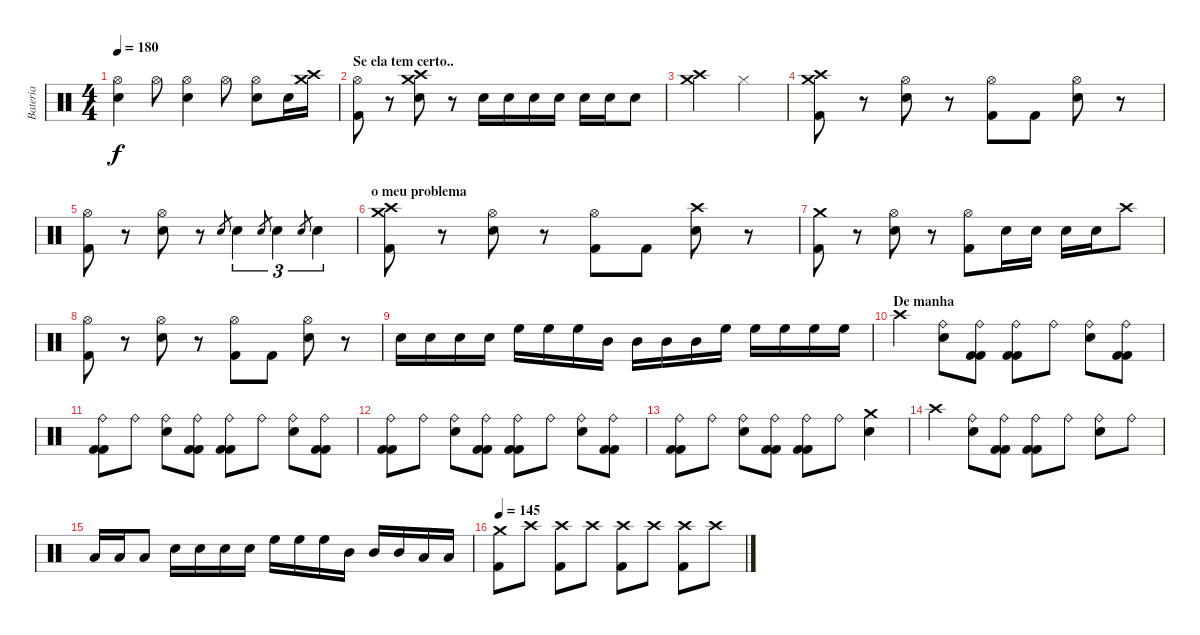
\track ("Bateria" "Bateria") {instrument percussion}
\staff {score}
\articulation defaults
\ts (4 4)
\tempo 180
\clef neutral
\ks c
("Hi-Hat (open)" "Electric Snare (hit)").4{dy f} "Hi-Hat (open)".8 ("Hi-Hat (open)" "Electric Snare (hit)").4 "Hi-Hat (open)".8 ("Hi-Hat (open)" "Electric Snare (hit)").8 "Electric Snare (hit)".16 ("Crash medium (hit)" "Crash high (hit)").16 |
\section ("" "Se ela tem certo..")
("Hi-Hat (open)" "Kick (hit) 2").8 r.8 ("Crash medium (hit)" "Crash high (hit)" "Electric Snare (hit)").8 r.8 "Electric Snare (hit)".16 "Electric Snare (hit)".16 "Electric Snare (hit)".16 "Electric Snare (hit)".16 "Electric Snare (hit)".16 "Electric Snare (hit)".16 "Electric Snare (hit)".8 |
("Crash medium (hit)" "Crash high (hit)").2 "Hi-Hat (closed)".2 |
("Crash medium (hit)" "Crash high (hit)" "Kick (hit) 2").8 r.8 ("Hi-Hat (open)" "Electric Snare (hit)").8 r.8 ("Hi-Hat (open)" "Kick (hit) 2").8 "Kick (hit) 2".8 ("Hi-Hat (open)" "Electric Snare (hit)").8 r.8 |
("Hi-Hat (open)" "Kick (hit) 2").8 r.8 ("Hi-Hat (open)" "Electric Snare (hit)").8 r.8 "Electric Snare (hit)".8{gr} "Electric Snare (hit)".4{tu (3 2)} "Electric Snare (hit)".8{gr} "Electric Snare (hit)".4{tu (3 2)} "Electric Snare (hit)".8{gr} "Electric Snare (hit)".4{tu (3 2)} |
\section ("" "o meu problema")
("Crash medium (hit)" "Crash high (hit)" "Kick (hit) 2").8 r.8 ("Hi-Hat (open)" "Electric Snare (hit)").8 r.8 ("Hi-Hat (open)" "Kick (hit) 2").8 "Kick (hit) 2".8 ("Crash high (hit)" "Electric Snare (hit)").8 r.8 |
("Crash medium (hit)" "Kick (hit) 2").8 r.8 ("Hi-Hat (open)" "Electric Snare (hit)").8 r.8 ("Hi-Hat (open)" "Kick (hit) 2").8 "Electric Snare (hit)".16 "Electric Snare (hit)".16 "Electric Snare (hit)".16 "Electric Snare (hit)".16 "Crash high (hit)".8 |
("Hi-Hat (open)" "Kick (hit) 2").8 r.8 ("Hi-Hat (open)" "Electric Snare (hit)").8 r.8 ("Hi-Hat (open)" "Kick (hit) 2").8 "Kick (hit) 2".8 ("Hi-Hat (open)" "Electric Snare (hit)").8 r.8 |
"Electric Snare (hit)".16 "Electric Snare (hit)".16 "Electric Snare (hit)".16 "Electric Snare (hit)".16 "High Floor Tom (hit)".16 "High Floor Tom (hit)".16 "High Floor Tom (hit)".16 "Mid Tom (hit)".16 "Mid Tom (hit)".16 "Mid Tom (hit)".16 "Mid Tom (hit)".16 "High Floor Tom (hit)".16 "High Floor Tom (hit)".16 "High Floor Tom (hit)".16 "High Floor Tom (hit)".16 "High Floor Tom (hit)".16 |
\section ("" "De manha")
"Crash high (hit)".4 ("Ride (bell)" "Electric Snare (hit)").8 ("Ride (bell)" "Kick (hit) 2" "Kick (hit) 2").8 ("Ride (bell)" "Kick (hit) 2" "Kick (hit) 2").8 "Ride (bell)".8 ("Ride (bell)" "Electric Snare (hit)").8 ("Ride (bell)" "Kick (hit) 2" "Kick (hit) 2").8 |
("Ride (bell)" "Kick (hit) 2" "Kick (hit) 2").8 "Ride (bell)".8 ("Ride (bell)" "Electric Snare (hit)").8 ("Ride (bell)" "Kick (hit) 2" "Kick (hit) 2").8 ("Ride (bell)" "Kick (hit) 2" "Kick (hit) 2").8 "Ride (bell)".8 ("Ride (bell)" "Electric Snare (hit)").8 ("Ride (bell)" "Kick (hit) 2" "Kick (hit) 2").8 |
("Ride (bell)" "Kick (hit) 2" "Kick (hit) 2").8 "Ride (bell)".8 ("Ride (bell)" "Electric Snare (hit)").8 ("Ride (bell)" "Kick (hit) 2" "Kick (hit) 2").8 ("Ride (bell)" "Kick (hit) 2" "Kick (hit) 2").8 "Ride (bell)".8 ("Ride (bell)" "Electric Snare (hit)").8 ("Ride (bell)" "Kick (hit) 2" "Kick (hit) 2").8 |
("Ride (bell)" "Kick (hit) 2" "Kick (hit) 2").8 "Ride (bell)".8 ("Ride (bell)" "Electric Snare (hit)").8 ("Ride (bell)" "Kick (hit) 2" "Kick (hit) 2").8 ("Ride (bell)" "Kick (hit) 2" "Kick (hit) 2").8 "Ride (bell)".8 ("Crash medium (hit)" "Electric Snare (hit)").4 |
"Crash high (hit)".4 ("Ride (bell)" "Electric Snare (hit)").8 ("Ride (bell)" "Kick (hit) 2" "Kick (hit) 2").8 ("Ride (bell)" "Kick (hit) 2" "Kick (hit) 2").8 "Ride (bell)".8 ("Ride (bell)" "Electric Snare (hit)").8 "Ride (bell)".8 |
"Low Tom (hit)".16 "Low Tom (hit)".16 "Low Tom (hit)".8 "Electric Snare (hit)".16 "Electric Snare (hit)".16 "Electric Snare (hit)".16 "Electric Snare (hit)".16 "High Floor Tom (hit)".16 "High Floor Tom (hit)".16 "High Floor Tom (hit)".16 "Mid Tom (hit)".16 "Mid Tom (hit)".16 "Mid Tom (hit)".16 "Low Tom (hit)".16 "Low Tom (hit)".16 |
\tempo 145
("Crash medium (hit)" "Kick (hit) 2").8 "Crash high (hit)".8 ("Crash high (hit)" "Kick (hit) 2").8 "Crash high (hit)".8 ("Crash high (hit)" "Kick (hit) 2").8 "Crash high (hit)".8 ("Crash high (hit)" "Kick (hit) 2").8 "Crash high (hit)".8
